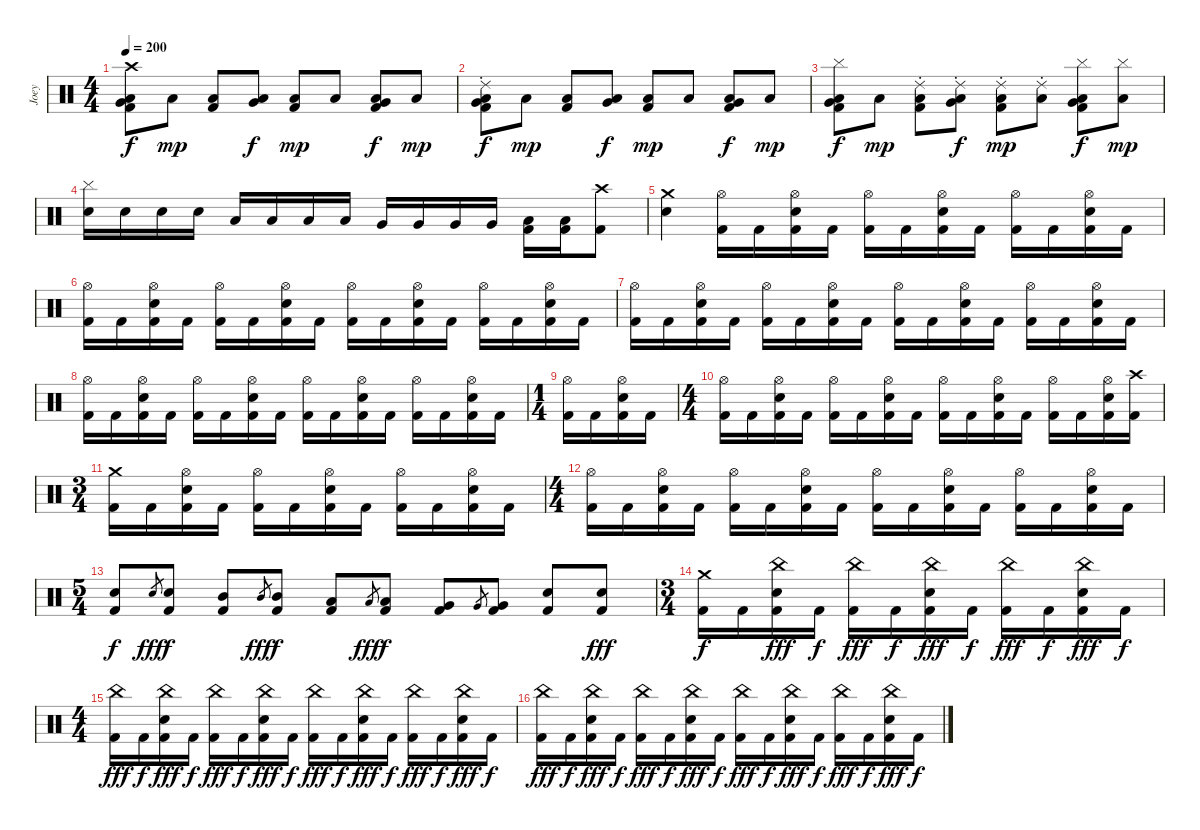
\track ("Joey" "Joey") {instrument percussion}
\staff {score}
\articulation defaults
\ts (4 4)
\tempo 200
\clef neutral
\ks c
("Crash high (hit)" "Very Low Tom (hit)" "Low Floor Tom (hit)" "Kick (hit) 2").8{dy f} "Low Floor Tom (hit)".8{dy mp} ("Low Floor Tom (hit)" "Kick (hit) 2").8 ("Very Low Tom (hit)" "Low Floor Tom (hit)").8{dy f} ("Low Floor Tom (hit)" "Kick (hit) 2").8{dy mp} "Low Floor Tom (hit)".8 ("Very Low Tom (hit)" "Low Floor Tom (hit)" "Kick (hit) 2").8{dy f} "Low Floor Tom (hit)".8{dy mp} |
("Very Low Tom (hit)" "Low Floor Tom (hit)" "Ride (choke) 2" "Kick (hit) 2").8{dy f} "Low Floor Tom (hit)".8{dy mp} ("Low Floor Tom (hit)" "Kick (hit) 2").8 ("Very Low Tom (hit)" "Low Floor Tom (hit)").8{dy f} ("Low Floor Tom (hit)" "Kick (hit) 2").8{dy mp} "Low Floor Tom (hit)".8 ("Very Low Tom (hit)" "Low Floor Tom (hit)" "Kick (hit) 2").8{dy f} "Low Floor Tom (hit)".8{dy mp} |
("Very Low Tom (hit)" "Low Floor Tom (hit)" "Cymbal (hit)" "Kick (hit) 2").8{dy f} "Low Floor Tom (hit)".8{dy mp} ("Low Floor Tom (hit)" "Ride (choke) 2" "Kick (hit) 2").8 ("Very Low Tom (hit)" "Low Floor Tom (hit)" "Ride (choke) 2").8{dy f} ("Low Floor Tom (hit)" "Ride (choke) 2" "Kick (hit) 2").8{dy mp} ("Low Floor Tom (hit)" "Ride (choke) 2").8 ("Very Low Tom (hit)" "Low Floor Tom (hit)" "Cymbal (hit)" "Kick (hit) 2").8{dy f} ("Low Floor Tom (hit)" "Cymbal (hit)").8{dy mp} |
("Cymbal (hit)" "Electric Snare (hit)").16 "Electric Snare (hit)".16 "Electric Snare (hit)".16 "Electric Snare (hit)".16 "Low Tom (hit)".16 "Low Tom (hit)".16 "Low Tom (hit)".16 "Low Tom (hit)".16 "Very Low Tom (hit)".16 "Very Low Tom (hit)".16 "Very Low Tom (hit)".16 "Very Low Tom (hit)".16 ("Low Floor Tom (hit)" "Kick (hit) 2").16 ("Low Floor Tom (hit)" "Kick (hit) 2").16 ("Crash high (hit)" "Kick (hit) 2").8 |
("Crash medium (hit)" "Electric Snare (hit)").4 ("Hi-Hat (open)" "Kick (hit) 2").16 "Kick (hit) 2".16 ("Hi-Hat (open)" "Electric Snare (hit)" "Kick (hit) 2").16 "Kick (hit) 2".16 ("Hi-Hat (open)" "Kick (hit) 2").16 "Kick (hit) 2".16 ("Hi-Hat (open)" "Electric Snare (hit)" "Kick (hit) 2").16 "Kick (hit) 2".16 ("Hi-Hat (open)" "Kick (hit) 2").16 "Kick (hit) 2".16 ("Hi-Hat (open)" "Electric Snare (hit)" "Kick (hit) 2").16 "Kick (hit) 2".16 |
("Hi-Hat (open)" "Kick (hit) 2").16 "Kick (hit) 2".16 ("Hi-Hat (open)" "Electric Snare (hit)" "Kick (hit) 2").16 "Kick (hit) 2".16 ("Hi-Hat (open)" "Kick (hit) 2").16 "Kick (hit) 2".16 ("Hi-Hat (open)" "Electric Snare (hit)" "Kick (hit) 2").16 "Kick (hit) 2".16 ("Hi-Hat (open)" "Kick (hit) 2").16 "Kick (hit) 2".16 ("Hi-Hat (open)" "Electric Snare (hit)" "Kick (hit) 2").16 "Kick (hit) 2".16 ("Hi-Hat (open)" "Kick (hit) 2").16 "Kick (hit) 2".16 ("Hi-Hat (open)" "Electric Snare (hit)" "Kick (hit) 2").16 "Kick (hit) 2".16 |
("Hi-Hat (open)" "Kick (hit) 2").16 "Kick (hit) 2".16 ("Hi-Hat (open)" "Electric Snare (hit)" "Kick (hit) 2").16 "Kick (hit) 2".16 ("Hi-Hat (open)" "Kick (hit) 2").16 "Kick (hit) 2".16 ("Hi-Hat (open)" "Electric Snare (hit)" "Kick (hit) 2").16 "Kick (hit) 2".16 ("Hi-Hat (open)" "Kick (hit) 2").16 "Kick (hit) 2".16 ("Hi-Hat (open)" "Electric Snare (hit)" "Kick (hit) 2").16 "Kick (hit) 2".16 ("Hi-Hat (open)" "Kick (hit) 2").16 "Kick (hit) 2".16 ("Hi-Hat (open)" "Electric Snare (hit)" "Kick (hit) 2").16 "Kick (hit) 2".16 |
("Hi-Hat (open)" "Kick (hit) 2").16 "Kick (hit) 2".16 ("Hi-Hat (open)" "Electric Snare (hit)" "Kick (hit) 2").16 "Kick (hit) 2".16 ("Hi-Hat (open)" "Kick (hit) 2").16 "Kick (hit) 2".16 ("Hi-Hat (open)" "Electric Snare (hit)" "Kick (hit) 2").16 "Kick (hit) 2".16 ("Hi-Hat (open)" "Kick (hit) 2").16 "Kick (hit) 2".16 ("Hi-Hat (open)" "Electric Snare (hit)" "Kick (hit) 2").16 "Kick (hit) 2".16 ("Hi-Hat (open)" "Kick (hit) 2").16 "Kick (hit) 2".16 ("Hi-Hat (open)" "Electric Snare (hit)" "Kick (hit) 2").16 "Kick (hit) 2".16 |
\ts (1 4)
("Hi-Hat (open)" "Kick (hit) 2").16 "Kick (hit) 2".16 ("Hi-Hat (open)" "Electric Snare (hit)" "Kick (hit) 2").16 "Kick (hit) 2".16 |
\ts (4 4)
("Hi-Hat (open)" "Kick (hit) 2").16 "Kick (hit) 2".16 ("Hi-Hat (open)" "Electric Snare (hit)" "Kick (hit) 2").16 "Kick (hit) 2".16 ("Hi-Hat (open)" "Kick (hit) 2").16 "Kick (hit) 2".16 ("Hi-Hat (open)" "Electric Snare (hit)" "Kick (hit) 2").16 "Kick (hit) 2".16 ("Hi-Hat (open)" "Kick (hit) 2").16 "Kick (hit) 2".16 ("Hi-Hat (open)" "Electric Snare (hit)" "Kick (hit) 2").16 "Kick (hit) 2".16 ("Hi-Hat (open)" "Kick (hit) 2").16 "Kick (hit) 2".16 ("Hi-Hat (open)" "Electric Snare (hit)" "Kick (hit) 2").16 ("Crash high (hit)" "Kick (hit) 2").16 |
\ts (3 4)
("Crash medium (hit)" "Kick (hit) 2").16 "Kick (hit) 2".16 ("Hi-Hat (open)" "Electric Snare (hit)" "Kick (hit) 2").16 "Kick (hit) 2".16 ("Hi-Hat (open)" "Kick (hit) 2").16 "Kick (hit) 2".16 ("Hi-Hat (open)" "Electric Snare (hit)" "Kick (hit) 2").16 "Kick (hit) 2".16 ("Hi-Hat (open)" "Kick (hit) 2").16 "Kick (hit) 2".16 ("Hi-Hat (open)" "Electric Snare (hit)" "Kick (hit) 2").16 "Kick (hit) 2".16 |
\ts (4 4)
("Hi-Hat (open)" "Kick (hit) 2").16 "Kick (hit) 2".16 ("Hi-Hat (open)" "Electric Snare (hit)" "Kick (hit) 2").16 "Kick (hit) 2".16 ("Hi-Hat (open)" "Kick (hit) 2").16 "Kick (hit) 2".16 ("Hi-Hat (open)" "Electric Snare (hit)" "Kick (hit) 2").16 "Kick (hit) 2".16 ("Hi-Hat (open)" "Kick (hit) 2").16 "Kick (hit) 2".16 ("Hi-Hat (open)" "Electric Snare (hit)" "Kick (hit) 2").16 "Kick (hit) 2".16 ("Hi-Hat (open)" "Kick (hit) 2").16 "Kick (hit) 2".16 ("Hi-Hat (open)" "Electric Snare (hit)" "Kick (hit) 2").16 "Kick (hit) 2".16 |
\ts (5 4)
("Electric Snare (hit)" "Kick (hit) 2").8{dy f} "Electric Snare (hit)".8{gr dy fff} ("Electric Snare (hit)" "Kick (hit) 2").8{dy f} ("Mid Tom (hit)" "Kick (hit) 2").8 "Mid Tom (hit)".8{gr dy fff} ("Mid Tom (hit)" "Kick (hit) 2").8{dy f} ("Low Tom (hit)" "Kick (hit) 2").8 "Low Tom (hit)".8{gr dy fff} ("Low Tom (hit)" "Kick (hit) 2").8{dy f} ("Very Low Tom (hit)" "Kick (hit) 2").8 "Very Low Tom (hit)".8{gr} ("Very Low Tom (hit)" "Kick (hit) 2").8 ("Electric Snare (hit)" "Kick (hit) 2").8 ("Electric Snare (hit)" "Kick (hit) 2").8{dy fff} |
\ts (3 4)
("Crash medium (hit)" "Kick (hit) 2").16{dy f} "Kick (hit) 2".16 ("China (hit)" "Electric Snare (hit)" "Kick (hit) 2").16{dy fff} "Kick (hit) 2".16{dy f} ("China (hit)" "Kick (hit) 2").16{dy fff} "Kick (hit) 2".16{dy f} ("China (hit)" "Electric Snare (hit)" "Kick (hit) 2").16{dy fff} "Kick (hit) 2".16{dy f} ("China (hit)" "Kick (hit) 2").16{dy fff} "Kick (hit) 2".16{dy f} ("China (hit)" "Electric Snare (hit)" "Kick (hit) 2").16{dy fff} "Kick (hit) 2".16{dy f} |
\ts (4 4)
("China (hit)" "Kick (hit) 2").16{dy fff} "Kick (hit) 2".16{dy f} ("China (hit)" "Electric Snare (hit)" "Kick (hit) 2").16{dy fff} "Kick (hit) 2".16{dy f} ("China (hit)" "Kick (hit) 2").16{dy fff} "Kick (hit) 2".16{dy f} ("China (hit)" "Electric Snare (hit)" "Kick (hit) 2").16{dy fff} "Kick (hit) 2".16{dy f} ("China (hit)" "Kick (hit) 2").16{dy fff} "Kick (hit) 2".16{dy f} ("China (hit)" "Electric Snare (hit)" "Kick (hit) 2").16{dy fff} "Kick (hit) 2".16{dy f} ("China (hit)" "Kick (hit) 2").16{dy fff} "Kick (hit) 2".16{dy f} ("China (hit)" "Electric Snare (hit)" "Kick (hit) 2").16{dy fff} "Kick (hit) 2".16{dy f} |
("China (hit)" "Kick (hit) 2").16{dy fff} "Kick (hit) 2".16{dy f} ("China (hit)" "Electric Snare (hit)" "Kick (hit) 2").16{dy fff} "Kick (hit) 2".16{dy f} ("China (hit)" "Kick (hit) 2").16{dy fff} "Kick (hit) 2".16{dy f} ("China (hit)" "Electric Snare (hit)" "Kick (hit) 2").16{dy fff} "Kick (hit) 2".16{dy f} ("China (hit)" "Kick (hit) 2").16{dy fff} "Kick (hit) 2".16{dy f} ("China (hit)" "Electric Snare (hit)" "Kick (hit) 2").16{dy fff} "Kick (hit) 2".16{dy f} ("China (hit)" "Kick (hit) 2").16{dy fff} "Kick (hit) 2".16{dy f} ("China (hit)" "Electric Snare (hit)" "Kick (hit) 2").16{dy fff} "Kick (hit) 2".16{dy f}
